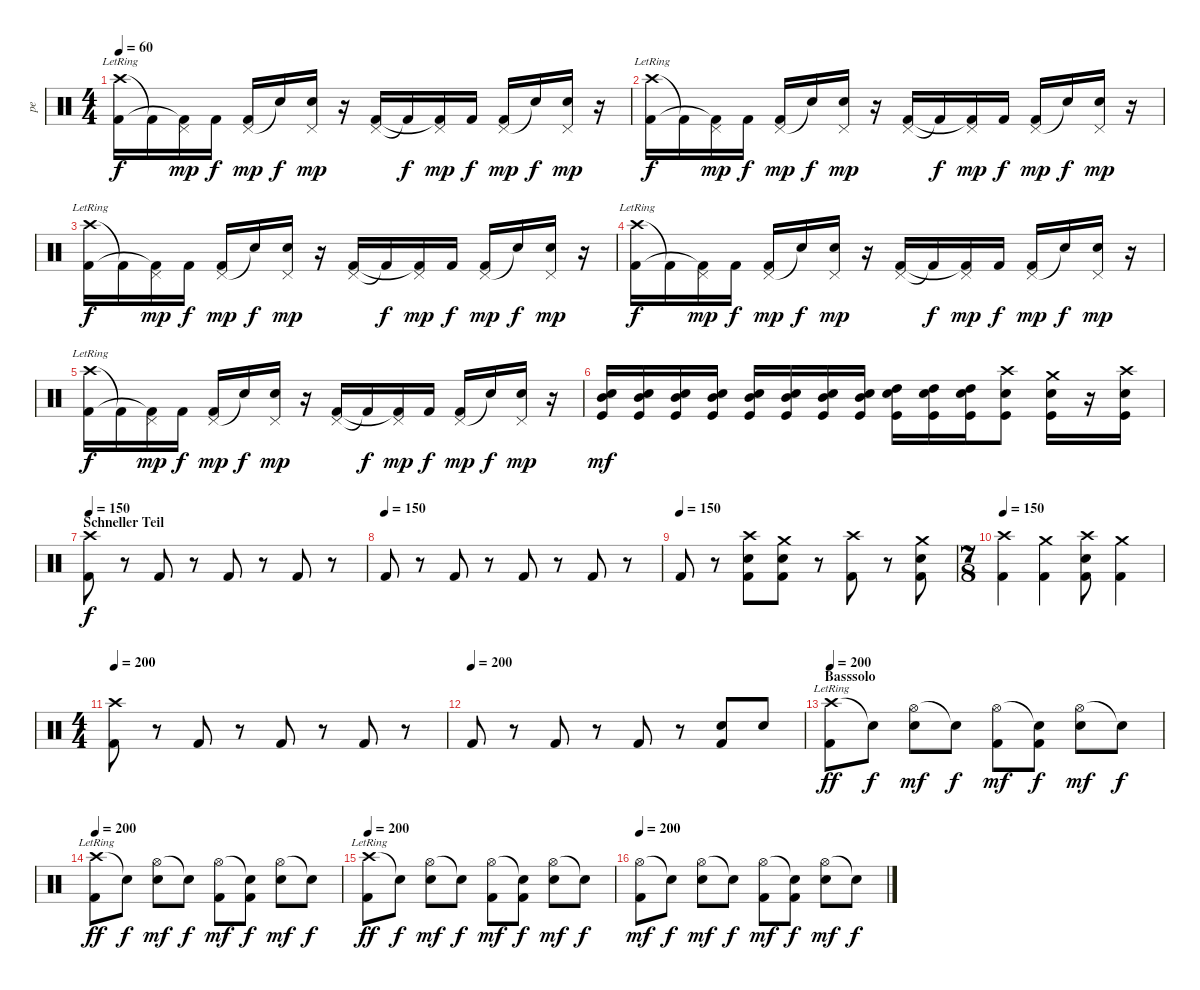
\track ("pe" "pe") {instrument percussion}
\staff {score}
\articulation defaults
\ts (4 4)
\tempo 60
\clef neutral
\ks c
("Crash high (hit)"{lr} "Kick (hit) 2").16{dy f} "Kick (hit) 2"{t}.16 ("Pedal Hi-Hat (hit)" "Kick (hit) 2"{t}).16{dy mp} "Kick (hit) 2".16{dy f} ("Pedal Hi-Hat (hit)" "Kick (hit) 2").16{dy mp} "Snare (hit)"{t}.16{dy f} ("Pedal Hi-Hat (hit)" "Snare (hit) 2").16{dy mp} r.16 ("Pedal Hi-Hat (hit)" "Kick (hit) 2").16 "Kick (hit) 2"{t}.16{dy f} ("Pedal Hi-Hat (hit)" "Kick (hit) 2"{t}).16{dy mp} "Kick (hit) 2".16{dy f} ("Pedal Hi-Hat (hit)" "Kick (hit) 2").16{dy mp} "Snare (hit)"{t}.16{dy f} ("Pedal Hi-Hat (hit)" "Snare (hit) 2").16{dy mp} r.16 |
("Crash high (hit)"{lr} "Kick (hit) 2").16{dy f} "Kick (hit) 2"{t}.16 ("Pedal Hi-Hat (hit)" "Kick (hit) 2"{t}).16{dy mp} "Kick (hit) 2".16{dy f} ("Pedal Hi-Hat (hit)" "Kick (hit) 2").16{dy mp} "Snare (hit)"{t}.16{dy f} ("Pedal Hi-Hat (hit)" "Snare (hit) 2").16{dy mp} r.16 ("Pedal Hi-Hat (hit)" "Kick (hit) 2").16 "Kick (hit) 2"{t}.16{dy f} ("Pedal Hi-Hat (hit)" "Kick (hit) 2"{t}).16{dy mp} "Kick (hit) 2".16{dy f} ("Pedal Hi-Hat (hit)" "Kick (hit) 2").16{dy mp} "Snare (hit)"{t}.16{dy f} ("Pedal Hi-Hat (hit)" "Snare (hit) 2").16{dy mp} r.16 |
("Crash high (hit)"{lr} "Kick (hit) 2").16{dy f} "Kick (hit) 2"{t}.16 ("Pedal Hi-Hat (hit)" "Kick (hit) 2"{t}).16{dy mp} "Kick (hit) 2".16{dy f} ("Pedal Hi-Hat (hit)" "Kick (hit) 2").16{dy mp} "Snare (hit)"{t}.16{dy f} ("Pedal Hi-Hat (hit)" "Snare (hit) 2").16{dy mp} r.16 ("Pedal Hi-Hat (hit)" "Kick (hit) 2").16 "Kick (hit) 2"{t}.16{dy f} ("Pedal Hi-Hat (hit)" "Kick (hit) 2"{t}).16{dy mp} "Kick (hit) 2".16{dy f} ("Pedal Hi-Hat (hit)" "Kick (hit) 2").16{dy mp} "Snare (hit)"{t}.16{dy f} ("Pedal Hi-Hat (hit)" "Snare (hit) 2").16{dy mp} r.16 |
("Crash high (hit)"{lr} "Kick (hit) 2").16{dy f} "Kick (hit) 2"{t}.16 ("Pedal Hi-Hat (hit)" "Kick (hit) 2"{t}).16{dy mp} "Kick (hit) 2".16{dy f} ("Pedal Hi-Hat (hit)" "Kick (hit) 2").16{dy mp} "Snare (hit)"{t}.16{dy f} ("Pedal Hi-Hat (hit)" "Snare (hit) 2").16{dy mp} r.16 ("Pedal Hi-Hat (hit)" "Kick (hit) 2").16 "Kick (hit) 2"{t}.16{dy f} ("Pedal Hi-Hat (hit)" "Kick (hit) 2"{t}).16{dy mp} "Kick (hit) 2".16{dy f} ("Pedal Hi-Hat (hit)" "Kick (hit) 2").16{dy mp} "Snare (hit)"{t}.16{dy f} ("Pedal Hi-Hat (hit)" "Snare (hit) 2").16{dy mp} r.16 |
("Crash high (hit)"{lr} "Kick (hit) 2").16{dy f} "Kick (hit) 2"{t}.16 ("Pedal Hi-Hat (hit)" "Kick (hit) 2"{t}).16{dy mp} "Kick (hit) 2".16{dy f} ("Pedal Hi-Hat (hit)" "Kick (hit) 2").16{dy mp} "Snare (hit)"{t}.16{dy f} ("Pedal Hi-Hat (hit)" "Snare (hit) 2").16{dy mp} r.16 ("Pedal Hi-Hat (hit)" "Kick (hit) 2").16 "Kick (hit) 2"{t}.16{dy f} ("Pedal Hi-Hat (hit)" "Kick (hit) 2"{t}).16{dy mp} "Kick (hit) 2".16{dy f} ("Pedal Hi-Hat (hit)" "Kick (hit) 2").16{dy mp} "Snare (hit)"{t}.16{dy f} ("Pedal Hi-Hat (hit)" "Snare (hit) 2").16{dy mp} r.16 |
("Snare (hit) 2" "Mid Tom (hit)" "Kick (hit)").16{dy mf} ("Snare (hit) 2" "Mid Tom (hit)" "Kick (hit)").16 ("Snare (hit) 2" "Mid Tom (hit)" "Kick (hit)").16 ("Snare (hit) 2" "Mid Tom (hit)" "Kick (hit)").16 ("Snare (hit) 2" "Mid Tom (hit)" "Kick (hit)").16 ("Snare (hit) 2" "Mid Tom (hit)" "Kick (hit)").16 ("Snare (hit) 2" "Mid Tom (hit)" "Kick (hit)").16 ("Snare (hit) 2" "Mid Tom (hit)" "Kick (hit)").16 ("Snare (hit) 2" "High Tom (hit)" "Kick (hit)").16 ("Snare (hit) 2" "High Tom (hit)" "Kick (hit)").16 ("Snare (hit) 2" "High Tom (hit)" "Kick (hit)").16 ("Crash high (hit)" "Snare (hit) 2" "Kick (hit)").8 ("Crash medium (hit)" "Snare (hit) 2" "Kick (hit)").16 r.16 ("Crash high (hit)" "Snare (hit) 2" "Kick (hit)").16 |
\section ("" "Schneller Teil")
\tempo 150
("Crash high (hit)" "Kick (hit) 2").8{dy f} r.8 "Kick (hit) 2".8 r.8 "Kick (hit) 2".8 r.8 "Kick (hit) 2".8 r.8 |
\tempo (150)
"Kick (hit) 2".8 r.8 "Kick (hit) 2".8 r.8 "Kick (hit) 2".8 r.8 "Kick (hit) 2".8 r.8 |
\tempo (150)
"Kick (hit) 2".8 r.8 ("Crash high (hit)" "Snare (hit) 2" "Kick (hit) 2").8 ("Crash medium (hit)" "Snare (hit) 2" "Kick (hit) 2").8 r.8 ("Crash high (hit)" "Kick (hit) 2").8 r.8 ("Crash medium (hit)" "Snare (hit) 2" "Kick (hit) 2").8 |
\ts (7 8)
\tempo 150
("Crash high (hit)" "Kick (hit) 2").4 ("Crash medium (hit)" "Kick (hit) 2").4 ("Crash high (hit)" "Snare (hit) 2" "Kick (hit) 2").8 ("Crash medium (hit)" "Kick (hit) 2").4 |
\ts (4 4)
\tempo 200
("Crash high (hit)" "Kick (hit) 2").8 r.8 "Kick (hit) 2".8 r.8 "Kick (hit) 2".8 r.8 "Kick (hit) 2".8 r.8 |
\tempo (200)
"Kick (hit) 2".8 r.8 "Kick (hit) 2".8 r.8 "Kick (hit) 2".8 r.8 ("Snare (hit) 2" "Kick (hit) 2").8 "Snare (hit) 2".8 |
\section ("" "Basssolo")
\tempo 200
("Crash high (hit)"{lr} "Kick (hit) 2").8{dy ff} "Snare (hit)"{t}.8{dy f} ("Hi-Hat (open)" "Snare (hit) 2").8{dy mf} "Snare (hit)"{t}.8{dy f} ("Hi-Hat (open)" "Kick (hit) 2").8{dy mf} ("Snare (hit)"{t} "Kick (hit) 2").8{dy f} ("Hi-Hat (open)" "Snare (hit) 2").8{dy mf} "Snare (hit)"{t}.8{dy f} |
\tempo 200
("Crash high (hit)"{lr} "Kick (hit) 2").8{dy ff} "Snare (hit)"{t}.8{dy f} ("Hi-Hat (open)" "Snare (hit) 2").8{dy mf} "Snare (hit)"{t}.8{dy f} ("Hi-Hat (open)" "Kick (hit) 2").8{dy mf} ("Snare (hit)"{t} "Kick (hit) 2").8{dy f} ("Hi-Hat (open)" "Snare (hit) 2").8{dy mf} "Snare (hit)"{t}.8{dy f} |
\tempo 200
("Crash high (hit)"{lr} "Kick (hit) 2").8{dy ff} "Snare (hit)"{t}.8{dy f} ("Hi-Hat (open)" "Snare (hit) 2").8{dy mf} "Snare (hit)"{t}.8{dy f} ("Hi-Hat (open)" "Kick (hit) 2").8{dy mf} ("Snare (hit)"{t} "Kick (hit) 2").8{dy f} ("Hi-Hat (open)" "Snare (hit) 2").8{dy mf} "Snare (hit)"{t}.8{dy f} |
\tempo 200
("Hi-Hat (open)" "Kick (hit) 2").8{dy mf} "Snare (hit)"{t}.8{dy f} ("Hi-Hat (open)" "Snare (hit) 2").8{dy mf} "Snare (hit)"{t}.8{dy f} ("Hi-Hat (open)" "Kick (hit) 2").8{dy mf} ("Snare (hit)"{t} "Kick (hit) 2").8{dy f} ("Hi-Hat (open)" "Snare (hit) 2").8{dy mf} "Snare (hit)"{t}.8{dy f}
